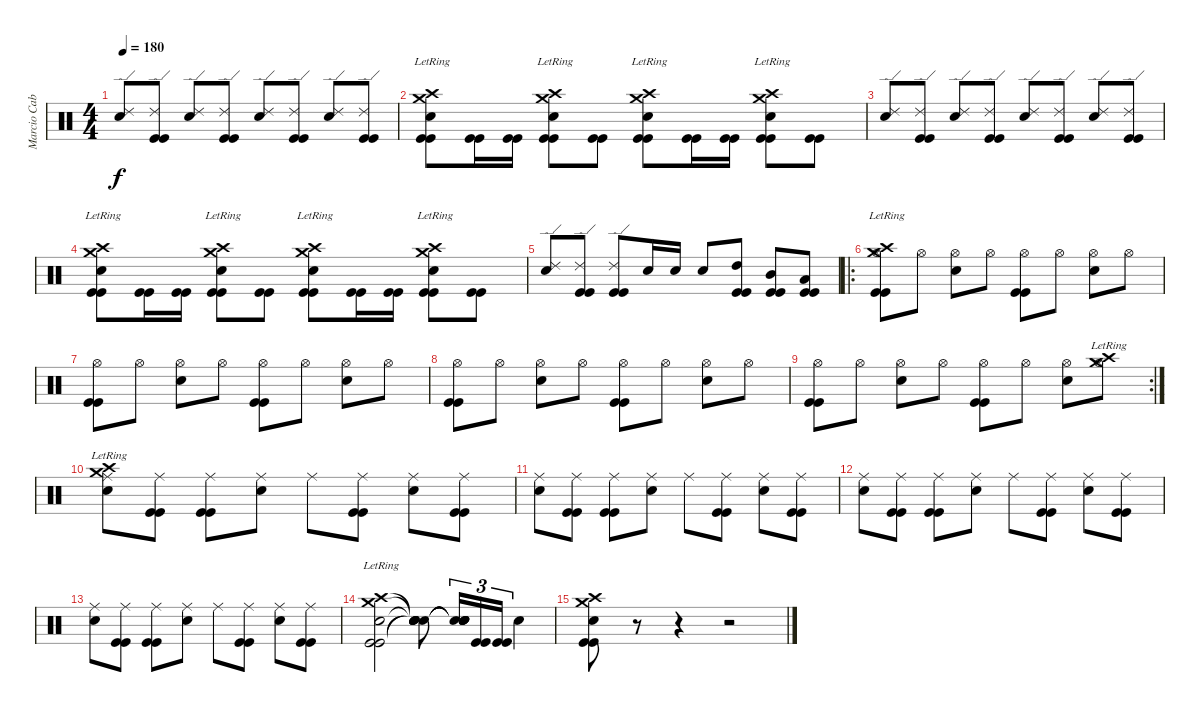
\track ("Marcio Cabrita" "Marcio Cab") {instrument percussion}
\staff {score}
\articulation defaults
\ts (4 4)
\tempo 180
\clef neutral
\ks c
("Snare (hit) 2" "Ride (edge) 2").8{dy f} ("Ride (edge) 2" "Kick (hit)" "Kick (hit)").8 ("Snare (hit) 2" "Ride (edge) 2").8 ("Ride (edge) 2" "Kick (hit)" "Kick (hit)").8 ("Snare (hit) 2" "Ride (edge) 2").8 ("Ride (edge) 2" "Kick (hit)" "Kick (hit)").8 ("Snare (hit) 2" "Ride (edge) 2").8 ("Ride (edge) 2" "Kick (hit)" "Kick (hit)").8 |
("Crash high (hit)"{lr} "Crash medium (hit)"{lr} "Snare (hit) 2" "Kick (hit)" "Kick (hit)").8 ("Kick (hit)" "Kick (hit)").16 ("Kick (hit)" "Kick (hit)").16 ("Crash high (hit)"{lr} "Crash medium (hit)"{lr} "Snare (hit) 2" "Kick (hit)" "Kick (hit)").8 ("Kick (hit)" "Kick (hit)").8 ("Crash high (hit)"{lr} "Crash medium (hit)"{lr} "Snare (hit) 2" "Kick (hit)" "Kick (hit)").8 ("Kick (hit)" "Kick (hit)").16 ("Kick (hit)" "Kick (hit)").16 ("Crash high (hit)"{lr} "Crash medium (hit)"{lr} "Snare (hit) 2" "Kick (hit)" "Kick (hit)").8 ("Kick (hit)" "Kick (hit)").8 |
("Snare (hit) 2" "Ride (edge) 2").8 ("Ride (edge) 2" "Kick (hit)" "Kick (hit)").8 ("Snare (hit) 2" "Ride (edge) 2").8 ("Ride (edge) 2" "Kick (hit)" "Kick (hit)").8 ("Snare (hit) 2" "Ride (edge) 2").8 ("Ride (edge) 2" "Kick (hit)" "Kick (hit)").8 ("Snare (hit) 2" "Ride (edge) 2").8 ("Ride (edge) 2" "Kick (hit)" "Kick (hit)").8 |
("Crash high (hit)"{lr} "Crash medium (hit)"{lr} "Snare (hit) 2" "Kick (hit)" "Kick (hit)").8 ("Kick (hit)" "Kick (hit)").16 ("Kick (hit)" "Kick (hit)").16 ("Crash high (hit)"{lr} "Crash medium (hit)"{lr} "Snare (hit) 2" "Kick (hit)" "Kick (hit)").8 ("Kick (hit)" "Kick (hit)").8 ("Crash high (hit)"{lr} "Crash medium (hit)"{lr} "Snare (hit) 2" "Kick (hit)" "Kick (hit)").8 ("Kick (hit)" "Kick (hit)").16 ("Kick (hit)" "Kick (hit)").16 ("Crash high (hit)"{lr} "Crash medium (hit)"{lr} "Snare (hit) 2" "Kick (hit)" "Kick (hit)").8 ("Kick (hit)" "Kick (hit)").8 |
("Snare (hit) 2" "Ride (edge) 2").8 ("Ride (edge) 2" "Kick (hit)" "Kick (hit)").8 ("Ride (edge) 2" "Kick (hit)" "Kick (hit)").8 "Electric Snare (hit)".16 "Electric Snare (hit)".16 "Electric Snare (hit)".8 ("High Tom (hit)" "Kick (hit)" "Kick (hit)").8 ("Mid Tom (hit)" "Kick (hit)" "Kick (hit)").8 ("Low Tom (hit)" "Kick (hit)" "Kick (hit)").8 |
\ro
("Crash high (hit)"{lr} "Crash medium (hit)"{lr} "Hi-Hat (open)" "Kick (hit)" "Kick (hit)").8 "Hi-Hat (open)".8 ("Snare (hit) 2" "Hi-Hat (open)").8 "Hi-Hat (open)".8 ("Hi-Hat (open)" "Kick (hit)" "Kick (hit)").8 "Hi-Hat (open)".8 ("Snare (hit) 2" "Hi-Hat (open)").8 "Hi-Hat (open)".8 |
("Hi-Hat (open)" "Kick (hit)" "Kick (hit)").8 "Hi-Hat (open)".8 ("Snare (hit) 2" "Hi-Hat (open)").8 "Hi-Hat (open)".8 ("Hi-Hat (open)" "Kick (hit)" "Kick (hit)").8 "Hi-Hat (open)".8 ("Snare (hit) 2" "Hi-Hat (open)").8 "Hi-Hat (open)".8 |
("Hi-Hat (open)" "Kick (hit)" "Kick (hit)").8 "Hi-Hat (open)".8 ("Snare (hit) 2" "Hi-Hat (open)").8 "Hi-Hat (open)".8 ("Hi-Hat (open)" "Kick (hit)" "Kick (hit)").8 "Hi-Hat (open)".8 ("Snare (hit) 2" "Hi-Hat (open)").8 "Hi-Hat (open)".8 |
\rc 2
("Hi-Hat (open)" "Kick (hit)" "Kick (hit)").8 "Hi-Hat (open)".8 ("Snare (hit) 2" "Hi-Hat (open)").8 "Hi-Hat (open)".8 ("Hi-Hat (open)" "Kick (hit)" "Kick (hit)").8 "Hi-Hat (open)".8 ("Snare (hit) 2" "Hi-Hat (open)").8 ("Crash high (hit)"{lr} "Crash medium (hit)"{lr} "Hi-Hat (open)").8 |
("Crash high (hit)"{lr} "Crash medium (hit)"{lr} "Snare (hit) 2" "Ride (middle)").8 ("Ride (middle)" "Kick (hit)" "Kick (hit)").8 ("Ride (middle)" "Kick (hit)" "Kick (hit)").8 ("Snare (hit) 2" "Ride (middle)").8 "Ride (middle)".8 ("Ride (middle)" "Kick (hit)" "Kick (hit)").8 ("Snare (hit) 2" "Ride (middle)").8 ("Ride (middle)" "Kick (hit)" "Kick (hit)").8 |
("Snare (hit) 2" "Ride (middle)").8 ("Ride (middle)" "Kick (hit)" "Kick (hit)").8 ("Ride (middle)" "Kick (hit)" "Kick (hit)").8 ("Snare (hit) 2" "Ride (middle)").8 "Ride (middle)".8 ("Ride (middle)" "Kick (hit)" "Kick (hit)").8 ("Snare (hit) 2" "Ride (middle)").8 ("Ride (middle)" "Kick (hit)" "Kick (hit)").8 |
("Snare (hit) 2" "Ride (middle)").8 ("Ride (middle)" "Kick (hit)" "Kick (hit)").8 ("Ride (middle)" "Kick (hit)" "Kick (hit)").8 ("Snare (hit) 2" "Ride (middle)").8 "Ride (middle)".8 ("Ride (middle)" "Kick (hit)" "Kick (hit)").8 ("Snare (hit) 2" "Ride (middle)").8 ("Ride (middle)" "Kick (hit)" "Kick (hit)").8 |
("Snare (hit) 2" "Ride (middle)").8 ("Ride (middle)" "Kick (hit)" "Kick (hit)").8 ("Ride (middle)" "Kick (hit)" "Kick (hit)").8 ("Snare (hit) 2" "Ride (middle)").8 "Ride (middle)".8 ("Ride (middle)" "Kick (hit)" "Kick (hit)").8 ("Snare (hit) 2" "Ride (middle)").8 ("Ride (middle)" "Kick (hit)" "Kick (hit)").8 |
("Crash high (hit)"{lr} "Crash medium (hit)"{lr} "Snare (hit) 2" "Kick (hit)" "Kick (hit)").2 ("Snare (hit)"{t} "Snare (hit)"{t} "Snare (hit)"{t} "Snare (hit)"{t} "Snare (hit)"{t}).8 ("Snare (hit)"{t} "Snare (hit)"{t} "Snare (hit)"{t} "Snare (hit)"{t} "Snare (hit)"{t}).16{tu (3 2)} ("Kick (hit)" "Kick (hit)").16{tu (3 2)} ("Kick (hit)" "Kick (hit)").16{tu (3 2)} "Snare (hit) 2".4 |
("Crash high (hit)" "Crash medium (hit)" "Snare (hit) 2" "Kick (hit)" "Kick (hit)").8 r.8 r.4 r.2
